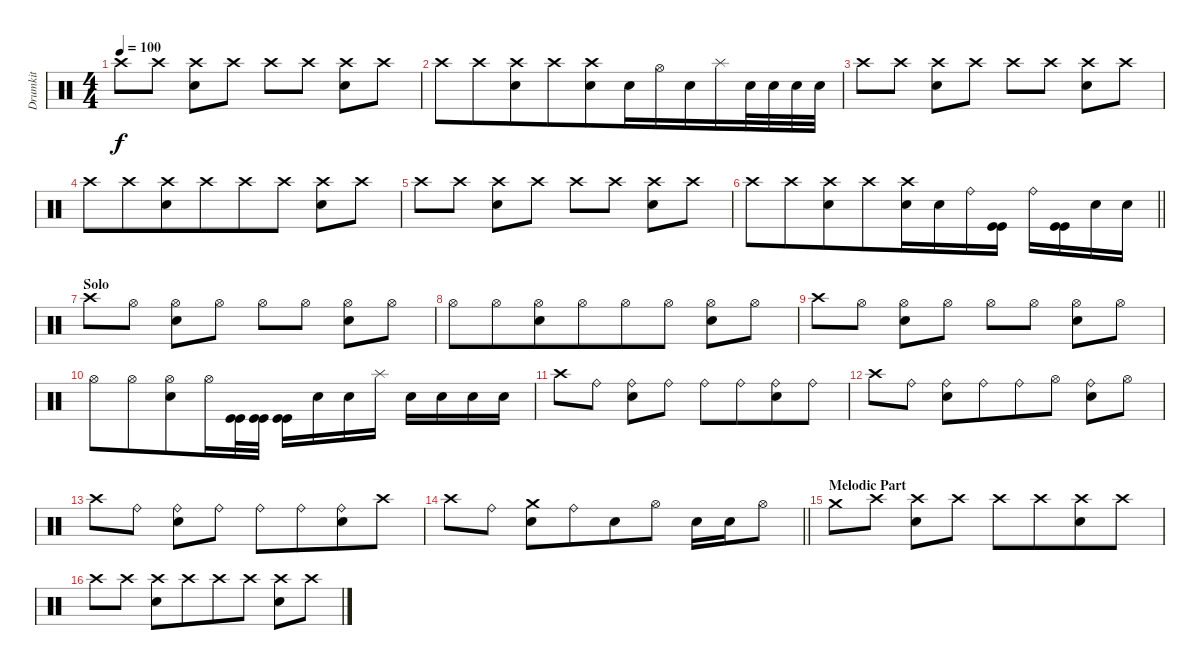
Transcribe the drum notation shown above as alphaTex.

\track ("Drumkit" "Drumkit") {instrument percussion}
\staff {score}
\articulation defaults
\ts (4 4)
\tempo 100
\clef neutral
\ks c "Crash high (hit)".8{dy f} "Crash high (hit)".8
("Crash high (hit)" "Electric Snare (hit)").8{beam merge} "Crash high (hit)".8 "Crash high (hit)".8 "Crash high (hit)".8 ("Crash high (hit)" "Electric Snare (hit)").8{beam merge} "Crash high (hit)".8 |
"Crash high (hit)".8{beam merge} "Crash high (hit)".8{beam merge} ("Crash high (hit)" "Electric Snare (hit)").8{beam merge} "Crash high (hit)".8{beam merge} ("Crash high (hit)" "Electric Snare (hit)").8 "Electric Snare (hit)".16{beam merge} "Hi-Hat (open)".16{beam merge} "Electric Snare (hit)".16 "Splash (hit)".16{beam merge} "Electric Snare (hit)".32{beam merge} "Electric Snare (hit)".32 "Electric Snare (hit)".32 "Electric Snare (hit)".32 |
"Crash high (hit)".8 "Crash high (hit)".8 ("Crash high (hit)" "Electric Snare (hit)").8{beam merge} "Crash high (hit)".8 "Crash high (hit)".8 "Crash high (hit)".8 ("Crash high (hit)" "Electric Snare (hit)").8{beam merge} "Crash high (hit)".8 |
"Crash high (hit)".8{beam merge} "Crash high (hit)".8{beam merge} ("Crash high (hit)" "Electric Snare (hit)").8{beam merge} "Crash high (hit)".8{beam merge} "Crash high (hit)".8 "Crash high (hit)".8 ("Crash high (hit)" "Electric Snare (hit)").8 "Crash high (hit)".8 |
"Crash high (hit)".8 "Crash high (hit)".8 ("Crash high (hit)" "Electric Snare (hit)").8{beam merge} "Crash high (hit)".8 "Crash high (hit)".8 "Crash high (hit)".8 ("Crash high (hit)" "Electric Snare (hit)").8{beam merge} "Crash high (hit)".8 |
\barLineRight lightlight "Crash high (hit)".8{beam merge} "Crash high (hit)".8{beam merge}
("Crash high (hit)" "Electric Snare (hit)").8{beam merge} "Crash high (hit)".8{beam merge} ("Crash high (hit)" "Electric Snare (hit)").16 "Electric Snare (hit)".16 "Ride (bell)".16{beam merge} ("Kick (hit)" "Kick (hit)").16 "Ride (bell)".16{beam merge} ("Kick (hit)" "Kick (hit)").16{beam merge} "Electric Snare (hit)".16{beam merge} "Electric Snare (hit)".16 |
\section ("" "Solo")
"Crash high (hit)".8 "Hi-Hat (open)".8 ("Hi-Hat (open)" "Electric Snare (hit)").8{beam merge} "Hi-Hat (open)".8 "Hi-Hat (open)".8 "Hi-Hat (open)".8 ("Hi-Hat (open)" "Electric Snare (hit)").8{beam merge} "Hi-Hat (open)".8 |
"Hi-Hat (open)".8{beam merge} "Hi-Hat (open)".8{beam merge} ("Hi-Hat (open)" "Electric Snare (hit)").8{beam merge} "Hi-Hat (open)".8{beam merge} "Hi-Hat (open)".8 "Hi-Hat (open)".8 ("Hi-Hat (open)" "Electric Snare (hit)").8 "Hi-Hat (open)".8 |
"Crash high (hit)".8 "Hi-Hat (open)".8 ("Hi-Hat (open)" "Electric Snare (hit)").8{beam merge} "Hi-Hat (open)".8 "Hi-Hat (open)".8 "Hi-Hat (open)".8 ("Hi-Hat (open)" "Electric Snare (hit)").8{beam merge} "Hi-Hat (open)".8 |
"Hi-Hat (open)".8{beam merge} "Hi-Hat (open)".8{beam merge} ("Hi-Hat (open)" "Electric Snare (hit)").8{beam merge} "Hi-Hat (open)".16{beam merge} ("Kick (hit)" "Kick (hit)").32 ("Kick (hit)" "Kick (hit)").32 ("Kick (hit)" "Kick (hit)").16 "Electric Snare (hit)".16{beam merge} "Electric Snare (hit)".16{beam merge} "Splash (hit)".16 "Electric Snare (hit)".16{beam merge} "Electric Snare (hit)".16 "Electric Snare (hit)".16{beam merge} "Electric Snare (hit)".16 |
"Crash high (hit)".8 "Ride (bell)".8 ("Ride (bell)" "Electric Snare (hit)").8 "Ride (bell)".8 "Ride (bell)".8{beam merge} "Ride (bell)".8{beam merge} ("Ride (bell)" "Electric Snare (hit)").8{beam merge} "Ride (bell)".8 |
"Crash high (hit)".8{beam merge} "Ride (bell)".8 ("Ride (bell)" "Electric Snare (hit)").8 "Ride (bell)".8{beam merge} "Ride (bell)".8{beam merge} "Hi-Hat (open)".8 ("Ride (bell)" "Electric Snare (hit)").8{beam merge} "Hi-Hat (open)".8 |
"Crash high (hit)".8 "Ride (bell)".8 ("Ride (bell)" "Electric Snare (hit)").8 "Ride (bell)".8 "Ride (bell)".8{beam merge} "Ride (bell)".8{beam merge} ("Ride (bell)" "Electric Snare (hit)").8{beam merge} "Crash high (hit)".8 |
\barLineRight lightlight "Crash high (hit)".8 "Ride (bell)".8
("Crash medium (hit)" "Electric Snare (hit)").8 "Ride (bell)".8{beam merge} "Electric Snare (hit)".8 "Hi-Hat (open)".8 "Electric Snare (hit)".16 "Electric Snare (hit)".16 "Hi-Hat (open)".8 |
\section ("" "Melodic Part")
"Crash medium (hit)".8 "Crash high (hit)".8 ("Crash high (hit)" "Electric Snare (hit)").8 "Crash high (hit)".8 "Crash high (hit)".8{beam merge} "Crash high (hit)".8{beam merge} ("Crash high (hit)" "Electric Snare (hit)").8{beam merge} "Crash high (hit)".8 |
"Crash high (hit)".8{beam merge} "Crash high (hit)".8 ("Crash high (hit)" "Electric Snare (hit)").8 "Crash high (hit)".8{beam merge} "Crash high (hit)".8{beam merge} "Crash high (hit)".8 ("Crash high (hit)" "Electric Snare (hit)").8{beam merge} "Crash high (hit)".8
